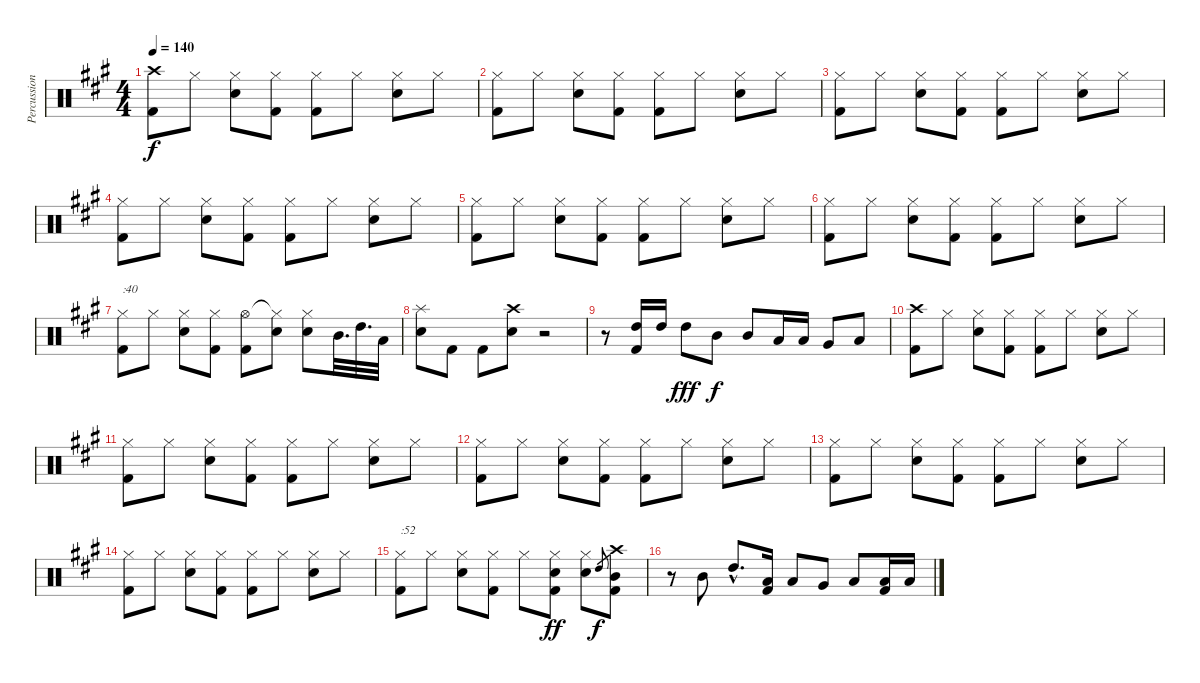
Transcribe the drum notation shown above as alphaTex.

\track ("Percussion" "Percussion") {instrument percussion}
\staff {score}
\articulation defaults
\ts (4 4)
\tempo 140
\clef neutral
\ks a
("Crash high (hit)" "Kick (hit) 2").8{dy f} "Hi-Hat (closed)".8 ("Hi-Hat (closed)" "Electric Snare (hit)").8 ("Hi-Hat (closed)" "Kick (hit) 2").8 ("Hi-Hat (closed)" "Kick (hit) 2").8 "Hi-Hat (closed)".8 ("Hi-Hat (closed)" "Electric Snare (hit)").8 "Hi-Hat (closed)".8 |
("Hi-Hat (closed)" "Kick (hit) 2").8 "Hi-Hat (closed)".8 ("Hi-Hat (closed)" "Electric Snare (hit)").8 ("Hi-Hat (closed)" "Kick (hit) 2").8 ("Hi-Hat (closed)" "Kick (hit) 2").8 "Hi-Hat (closed)".8 ("Hi-Hat (closed)" "Electric Snare (hit)").8 "Hi-Hat (closed)".8 |
("Hi-Hat (closed)" "Kick (hit) 2").8 "Hi-Hat (closed)".8 ("Hi-Hat (closed)" "Electric Snare (hit)").8 ("Hi-Hat (closed)" "Kick (hit) 2").8 ("Hi-Hat (closed)" "Kick (hit) 2").8 "Hi-Hat (closed)".8 ("Hi-Hat (closed)" "Electric Snare (hit)").8 "Hi-Hat (closed)".8 |
("Hi-Hat (closed)" "Kick (hit) 2").8 "Hi-Hat (closed)".8 ("Hi-Hat (closed)" "Electric Snare (hit)").8 ("Hi-Hat (closed)" "Kick (hit) 2").8 ("Hi-Hat (closed)" "Kick (hit) 2").8 "Hi-Hat (closed)".8 ("Hi-Hat (closed)" "Electric Snare (hit)").8 "Hi-Hat (closed)".8 |
("Hi-Hat (closed)" "Kick (hit) 2").8 "Hi-Hat (closed)".8 ("Hi-Hat (closed)" "Electric Snare (hit)").8 ("Hi-Hat (closed)" "Kick (hit) 2").8 ("Hi-Hat (closed)" "Kick (hit) 2").8 "Hi-Hat (closed)".8 ("Hi-Hat (closed)" "Electric Snare (hit)").8 "Hi-Hat (closed)".8 |
("Hi-Hat (closed)" "Kick (hit) 2").8 "Hi-Hat (closed)".8 ("Hi-Hat (closed)" "Electric Snare (hit)").8 ("Hi-Hat (closed)" "Kick (hit) 2").8 ("Hi-Hat (closed)" "Kick (hit) 2").8 "Hi-Hat (closed)".8 ("Hi-Hat (closed)" "Electric Snare (hit)").8 "Hi-Hat (closed)".8 |
("Hi-Hat (closed)" "Kick (hit) 2").8{txt ":40"} "Hi-Hat (closed)".8 ("Hi-Hat (closed)" "Electric Snare (hit)").8 ("Hi-Hat (closed)" "Kick (hit) 2").8 ("Hi-Hat (open)" "Kick (hit) 2").8 ("Hi-Hat (closed)"{t} "Electric Snare (hit)").8 ("Hi-Hat (closed)" "Electric Snare (hit)").8 "Mid Tom (hit)".32{d} "High Tom (hit)".32{d} "Low Tom (hit)".32 |
("Splash (hit)" "Electric Snare (hit)").8 "Kick (hit) 2".8 "Kick (hit) 2".8 ("Crash high (hit)" "Electric Snare (hit)").8 r.2 |
r.8 ("High Tom (hit)" "Kick (hit) 2").16 "High Tom (hit)".16 "High Tom (hit)".8{dy fff} "Mid Tom (hit)".8{dy f} "Mid Tom (hit)".8 "Low Tom (hit)".16 "Low Tom (hit)".16 "Very Low Tom (hit)".8 "Low Floor Tom (hit)".8 |
("Crash high (hit)" "Kick (hit) 2").8 "Hi-Hat (closed)".8 ("Hi-Hat (closed)" "Electric Snare (hit)").8 ("Hi-Hat (closed)" "Kick (hit) 2").8 ("Hi-Hat (closed)" "Kick (hit) 2").8 "Hi-Hat (closed)".8 ("Hi-Hat (closed)" "Electric Snare (hit)").8 "Hi-Hat (closed)".8 |
("Hi-Hat (closed)" "Kick (hit) 2").8 "Hi-Hat (closed)".8 ("Hi-Hat (closed)" "Electric Snare (hit)").8 ("Hi-Hat (closed)" "Kick (hit) 2").8 ("Hi-Hat (closed)" "Kick (hit) 2").8 "Hi-Hat (closed)".8 ("Hi-Hat (closed)" "Electric Snare (hit)").8 "Hi-Hat (closed)".8 |
("Hi-Hat (closed)" "Kick (hit) 2").8 "Hi-Hat (closed)".8 ("Hi-Hat (closed)" "Electric Snare (hit)").8 ("Hi-Hat (closed)" "Kick (hit) 2").8 ("Hi-Hat (closed)" "Kick (hit) 2").8 "Hi-Hat (closed)".8 ("Hi-Hat (closed)" "Electric Snare (hit)").8 "Hi-Hat (closed)".8 |
("Hi-Hat (closed)" "Kick (hit) 2").8 "Hi-Hat (closed)".8 ("Hi-Hat (closed)" "Electric Snare (hit)").8 ("Hi-Hat (closed)" "Kick (hit) 2").8 ("Hi-Hat (closed)" "Kick (hit) 2").8 "Hi-Hat (closed)".8 ("Hi-Hat (closed)" "Electric Snare (hit)").8 "Hi-Hat (closed)".8 |
("Hi-Hat (closed)" "Kick (hit) 2").8 "Hi-Hat (closed)".8 ("Hi-Hat (closed)" "Electric Snare (hit)").8 ("Hi-Hat (closed)" "Kick (hit) 2").8 ("Hi-Hat (closed)" "Kick (hit) 2").8 "Hi-Hat (closed)".8 ("Hi-Hat (closed)" "Electric Snare (hit)").8 "Hi-Hat (closed)".8 |
("Hi-Hat (closed)" "Kick (hit) 2").8{txt ":52"} "Hi-Hat (closed)".8 ("Hi-Hat (closed)" "Electric Snare (hit)").8 ("Hi-Hat (closed)" "Kick (hit) 2").8 "Hi-Hat (closed)".8 ("Hi-Hat (closed)" "Electric Snare (hit)" "Kick (hit) 2").8{dy ff} ("Hi-Hat (closed)" "Electric Snare (hit)").8 "High Tom (hit)".8{gr dy f} ("Crash high (hit)" "Mid Tom (hit)" "Kick (hit) 2").8 |
r.8 "Mid Tom (hit)".8 "High Tom (hit)"{hac}.8{d} ("Low Tom (hit)" "Kick (hit) 2").16 "Low Tom (hit)".8 "Very Low Tom (hit)".8 "Low Floor Tom (hit)".8 ("Low Floor Tom (hit)" "Kick (hit) 2").16 "Low Floor Tom (hit)".16
